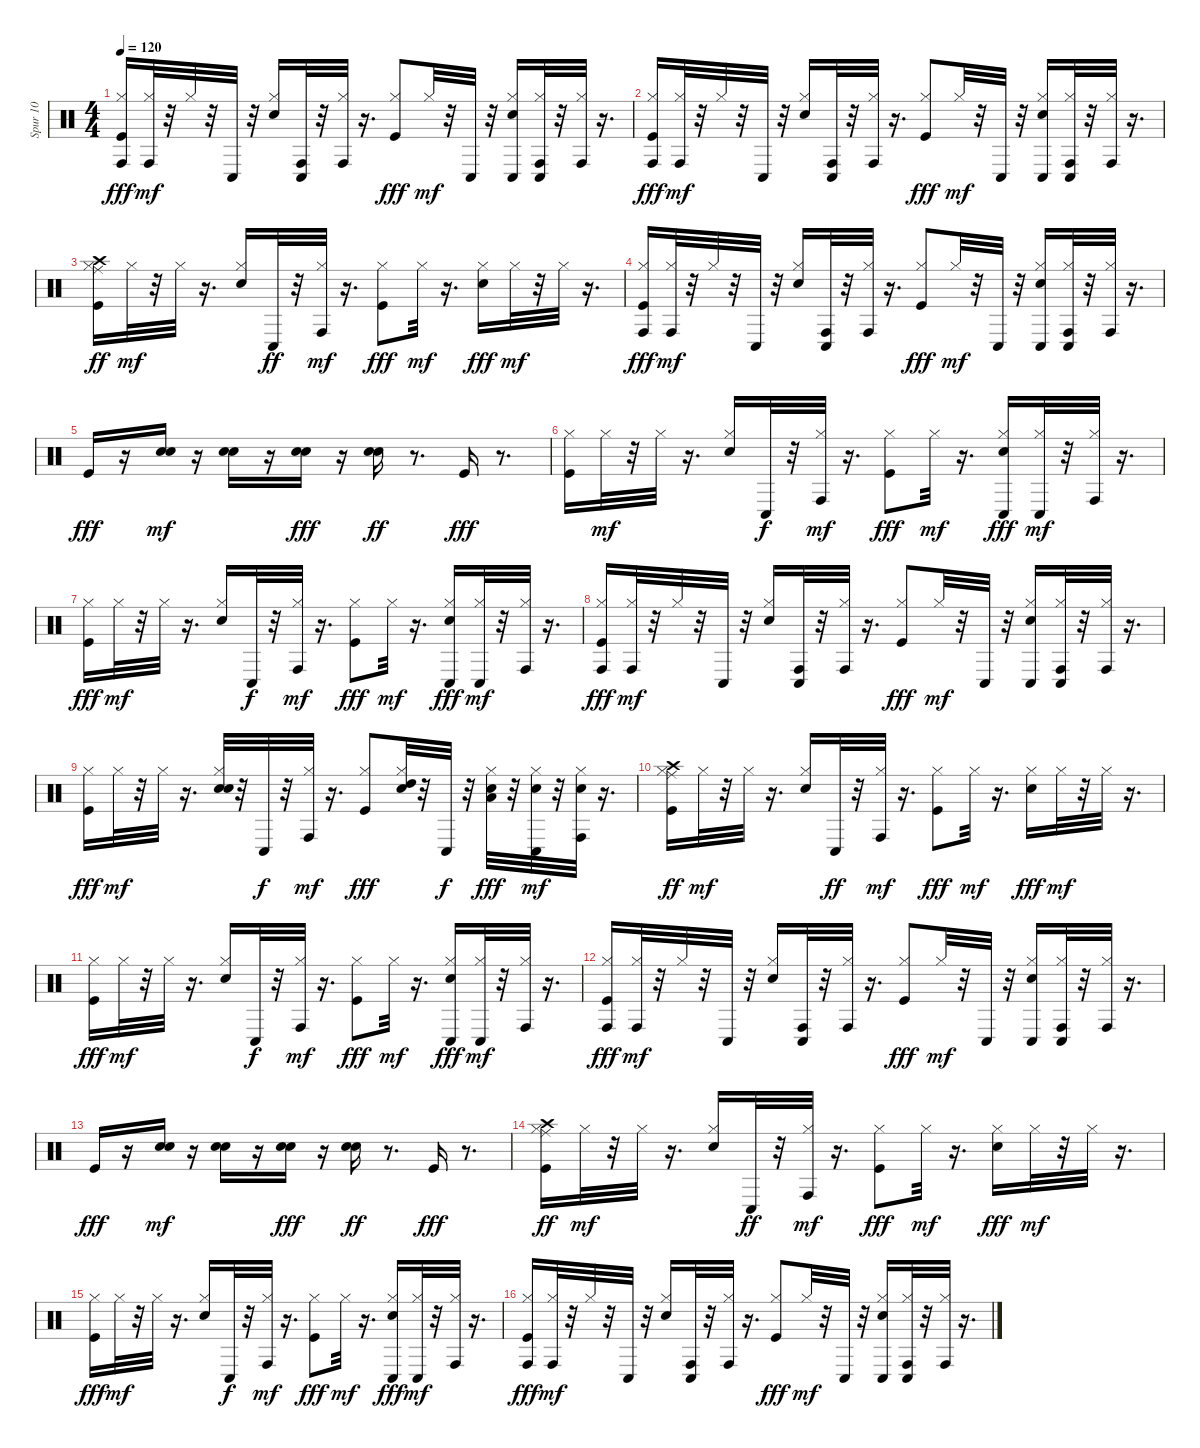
\track ("Spur 10" "Spur 10") {instrument percussion}
\staff {score}
\articulation defaults
\ts (4 4)
\tempo 120
\clef neutral
\ks c
("Kick (hit)" "Hi-Hat (closed)" "Conga high (hit)").16{dy fff} ("Hi-Hat (closed)" "Conga high (hit)").32{dy mf} r.32 "Hi-Hat (closed)".32 r.32 "Conga low (hit)".32 r.32 ("Snare (hit) 2" "Hi-Hat (closed)").16 ("Conga high (hit)" "Conga low (hit)").32 r.32 ("Hi-Hat (closed)" "Conga high (hit)").32 r.16{d} ("Kick (hit)" "Hi-Hat (closed)").8{dy fff} "Hi-Hat (closed)".32{dy mf} r.32 "Conga low (hit)".32 r.32 ("Snare (hit) 2" "Hi-Hat (closed)" "Conga low (hit)").16 ("Hi-Hat (closed)" "Conga high (hit)" "Conga low (hit)").32 r.32 ("Hi-Hat (closed)" "Conga high (hit)").32 r.16{d} |
("Kick (hit)" "Hi-Hat (closed)" "Conga high (hit)").16{dy fff} ("Hi-Hat (closed)" "Conga high (hit)").32{dy mf} r.32 "Hi-Hat (closed)".32 r.32 "Conga low (hit)".32 r.32 ("Snare (hit) 2" "Hi-Hat (closed)").16 ("Conga high (hit)" "Conga low (hit)").32 r.32 ("Hi-Hat (closed)" "Conga high (hit)").32 r.16{d} ("Kick (hit)" "Hi-Hat (closed)").8{dy fff} "Hi-Hat (closed)".32{dy mf} r.32 "Conga low (hit)".32 r.32 ("Snare (hit) 2" "Hi-Hat (closed)" "Conga low (hit)").16 ("Hi-Hat (closed)" "Conga high (hit)" "Conga low (hit)").32 r.32 ("Hi-Hat (closed)" "Conga high (hit)").32 r.16{d} |
("Kick (hit)" "Hi-Hat (closed)" "Ride (middle)" "Crash high (hit)").16{dy ff} "Hi-Hat (closed)".32{dy mf} r.32 "Hi-Hat (closed)".32 r.16{d} ("Snare (hit) 2" "Hi-Hat (closed)").16 "Conga low (hit)".32{dy ff} r.32 ("Hi-Hat (closed)" "Conga high (hit)").32{dy mf} r.16{d} ("Kick (hit)" "Hi-Hat (closed)").8{dy fff} "Hi-Hat (closed)".32{dy mf} r.16{d} ("Snare (hit) 2" "Hi-Hat (closed)").16{dy fff} "Hi-Hat (closed)".32{dy mf} r.32 "Hi-Hat (closed)".32 r.16{d} |
("Kick (hit)" "Hi-Hat (closed)" "Conga high (hit)").16{dy fff} ("Hi-Hat (closed)" "Conga high (hit)").32{dy mf} r.32 "Hi-Hat (closed)".32 r.32 "Conga low (hit)".32 r.32 ("Snare (hit) 2" "Hi-Hat (closed)").16 ("Conga high (hit)" "Conga low (hit)").32 r.32 ("Hi-Hat (closed)" "Conga high (hit)").32 r.16{d} ("Kick (hit)" "Hi-Hat (closed)").8{dy fff} "Hi-Hat (closed)".32{dy mf} r.32 "Conga low (hit)".32 r.32 ("Snare (hit) 2" "Hi-Hat (closed)" "Conga low (hit)").16 ("Hi-Hat (closed)" "Conga high (hit)" "Conga low (hit)").32 r.32 ("Hi-Hat (closed)" "Conga high (hit)").32 r.16{d} |
"Kick (hit)".16{dy fff} r.16 ("Snare (hit) 2" "Electric Snare (hit)").16{dy mf} r.16 ("Snare (hit) 2" "Electric Snare (hit)").16 r.16 ("Snare (hit) 2" "Electric Snare (hit)").16{dy fff} r.16 ("Snare (hit) 2" "Electric Snare (hit)").16{dy ff} r.8{d} "Kick (hit)".16{dy fff} r.8{d} |
("Kick (hit)" "Hi-Hat (closed)").16 "Hi-Hat (closed)".32{dy mf} r.32 "Hi-Hat (closed)".32 r.16{d} ("Snare (hit) 2" "Hi-Hat (closed)").16 "Conga low (hit)".32{dy f} r.32 ("Hi-Hat (closed)" "Conga high (hit)").32{dy mf} r.16{d} ("Kick (hit)" "Hi-Hat (closed)").8{dy fff} "Hi-Hat (closed)".32{dy mf} r.16{d} ("Snare (hit) 2" "Hi-Hat (closed)" "Conga low (hit)").16{dy fff} ("Hi-Hat (closed)" "Conga low (hit)").32{dy mf} r.32 ("Hi-Hat (closed)" "Conga high (hit)").32 r.16{d} |
("Kick (hit)" "Hi-Hat (closed)").16{dy fff} "Hi-Hat (closed)".32{dy mf} r.32 "Hi-Hat (closed)".32 r.16{d} ("Snare (hit) 2" "Hi-Hat (closed)").16 "Conga low (hit)".32{dy f} r.32 ("Hi-Hat (closed)" "Conga high (hit)").32{dy mf} r.16{d} ("Kick (hit)" "Hi-Hat (closed)").8{dy fff} "Hi-Hat (closed)".32{dy mf} r.16{d} ("Snare (hit) 2" "Hi-Hat (closed)" "Conga low (hit)").16{dy fff} ("Hi-Hat (closed)" "Conga low (hit)").32{dy mf} r.32 ("Hi-Hat (closed)" "Conga high (hit)").32 r.16{d} |
("Kick (hit)" "Hi-Hat (closed)" "Conga high (hit)").16{dy fff} ("Hi-Hat (closed)" "Conga high (hit)").32{dy mf} r.32 "Hi-Hat (closed)".32 r.32 "Conga low (hit)".32 r.32 ("Snare (hit) 2" "Hi-Hat (closed)").16 ("Conga high (hit)" "Conga low (hit)").32 r.32 ("Hi-Hat (closed)" "Conga high (hit)").32 r.16{d} ("Kick (hit)" "Hi-Hat (closed)").8{dy fff} "Hi-Hat (closed)".32{dy mf} r.32 "Conga low (hit)".32 r.32 ("Snare (hit) 2" "Hi-Hat (closed)" "Conga low (hit)").16 ("Hi-Hat (closed)" "Conga high (hit)" "Conga low (hit)").32 r.32 ("Hi-Hat (closed)" "Conga high (hit)").32 r.16{d} |
("Kick (hit)" "Hi-Hat (closed)").16{dy fff} "Hi-Hat (closed)".32{dy mf} r.32 "Hi-Hat (closed)".32 r.16{d} ("Snare (hit) 2" "Electric Snare (hit)" "Hi-Hat (closed)").32 r.32 "Conga low (hit)".32{dy f} r.32 ("Hi-Hat (closed)" "Conga high (hit)").32{dy mf} r.16{d} ("Kick (hit)" "Hi-Hat (closed)").8{dy fff} ("Electric Snare (hit)" "Hi-Hat (closed)" "High Tom (hit)").32 r.32 "Conga low (hit)".32{dy f} r.32 ("Snare (hit) 2" "Hi-Hat (closed)" "Low Floor Tom (hit)").32{dy fff} r.32 ("Snare (hit) 2" "Hi-Hat (closed)" "Conga low (hit)").32{dy mf} r.32 ("Snare (hit) 2" "Hi-Hat (closed)" "Conga high (hit)").32 r.16{d} |
("Kick (hit)" "Hi-Hat (closed)" "Ride (middle)" "Crash high (hit)").16{dy ff} "Hi-Hat (closed)".32{dy mf} r.32 "Hi-Hat (closed)".32 r.16{d} ("Snare (hit) 2" "Hi-Hat (closed)").16 "Conga low (hit)".32{dy ff} r.32 ("Hi-Hat (closed)" "Conga high (hit)").32{dy mf} r.16{d} ("Kick (hit)" "Hi-Hat (closed)").8{dy fff} "Hi-Hat (closed)".32{dy mf} r.16{d} ("Snare (hit) 2" "Hi-Hat (closed)").16{dy fff} "Hi-Hat (closed)".32{dy mf} r.32 "Hi-Hat (closed)".32 r.16{d} |
("Kick (hit)" "Hi-Hat (closed)").16{dy fff} "Hi-Hat (closed)".32{dy mf} r.32 "Hi-Hat (closed)".32 r.16{d} ("Snare (hit) 2" "Hi-Hat (closed)").16 "Conga low (hit)".32{dy f} r.32 ("Hi-Hat (closed)" "Conga high (hit)").32{dy mf} r.16{d} ("Kick (hit)" "Hi-Hat (closed)").8{dy fff} "Hi-Hat (closed)".32{dy mf} r.16{d} ("Snare (hit) 2" "Hi-Hat (closed)" "Conga low (hit)").16{dy fff} ("Hi-Hat (closed)" "Conga low (hit)").32{dy mf} r.32 ("Hi-Hat (closed)" "Conga high (hit)").32 r.16{d} |
("Kick (hit)" "Hi-Hat (closed)" "Conga high (hit)").16{dy fff} ("Hi-Hat (closed)" "Conga high (hit)").32{dy mf} r.32 "Hi-Hat (closed)".32 r.32 "Conga low (hit)".32 r.32 ("Snare (hit) 2" "Hi-Hat (closed)").16 ("Conga high (hit)" "Conga low (hit)").32 r.32 ("Hi-Hat (closed)" "Conga high (hit)").32 r.16{d} ("Kick (hit)" "Hi-Hat (closed)").8{dy fff} "Hi-Hat (closed)".32{dy mf} r.32 "Conga low (hit)".32 r.32 ("Snare (hit) 2" "Hi-Hat (closed)" "Conga low (hit)").16 ("Hi-Hat (closed)" "Conga high (hit)" "Conga low (hit)").32 r.32 ("Hi-Hat (closed)" "Conga high (hit)").32 r.16{d} |
"Kick (hit)".16{dy fff} r.16 ("Snare (hit) 2" "Electric Snare (hit)").16{dy mf} r.16 ("Snare (hit) 2" "Electric Snare (hit)").16 r.16 ("Snare (hit) 2" "Electric Snare (hit)").16{dy fff} r.16 ("Snare (hit) 2" "Electric Snare (hit)").16{dy ff} r.8{d} "Kick (hit)".16{dy fff} r.8{d} |
("Kick (hit)" "Hi-Hat (closed)" "Ride (middle)" "Crash high (hit)").16{dy ff} "Hi-Hat (closed)".32{dy mf} r.32 "Hi-Hat (closed)".32 r.16{d} ("Snare (hit) 2" "Hi-Hat (closed)").16 "Conga low (hit)".32{dy ff} r.32 ("Hi-Hat (closed)" "Conga high (hit)").32{dy mf} r.16{d} ("Kick (hit)" "Hi-Hat (closed)").8{dy fff} "Hi-Hat (closed)".32{dy mf} r.16{d} ("Snare (hit) 2" "Hi-Hat (closed)").16{dy fff} "Hi-Hat (closed)".32{dy mf} r.32 "Hi-Hat (closed)".32 r.16{d} |
("Kick (hit)" "Hi-Hat (closed)").16{dy fff} "Hi-Hat (closed)".32{dy mf} r.32 "Hi-Hat (closed)".32 r.16{d} ("Snare (hit) 2" "Hi-Hat (closed)").16 "Conga low (hit)".32{dy f} r.32 ("Hi-Hat (closed)" "Conga high (hit)").32{dy mf} r.16{d} ("Kick (hit)" "Hi-Hat (closed)").8{dy fff} "Hi-Hat (closed)".32{dy mf} r.16{d} ("Snare (hit) 2" "Hi-Hat (closed)" "Conga low (hit)").16{dy fff} ("Hi-Hat (closed)" "Conga low (hit)").32{dy mf} r.32 ("Hi-Hat (closed)" "Conga high (hit)").32 r.16{d} |
("Kick (hit)" "Hi-Hat (closed)" "Conga high (hit)").16{dy fff} ("Hi-Hat (closed)" "Conga high (hit)").32{dy mf} r.32 "Hi-Hat (closed)".32 r.32 "Conga low (hit)".32 r.32 ("Snare (hit) 2" "Hi-Hat (closed)").16 ("Conga high (hit)" "Conga low (hit)").32 r.32 ("Hi-Hat (closed)" "Conga high (hit)").32 r.16{d} ("Kick (hit)" "Hi-Hat (closed)").8{dy fff} "Hi-Hat (closed)".32{dy mf} r.32 "Conga low (hit)".32 r.32 ("Snare (hit) 2" "Hi-Hat (closed)" "Conga low (hit)").16 ("Hi-Hat (closed)" "Conga high (hit)" "Conga low (hit)").32 r.32 ("Hi-Hat (closed)" "Conga high (hit)").32 r.16{d}
